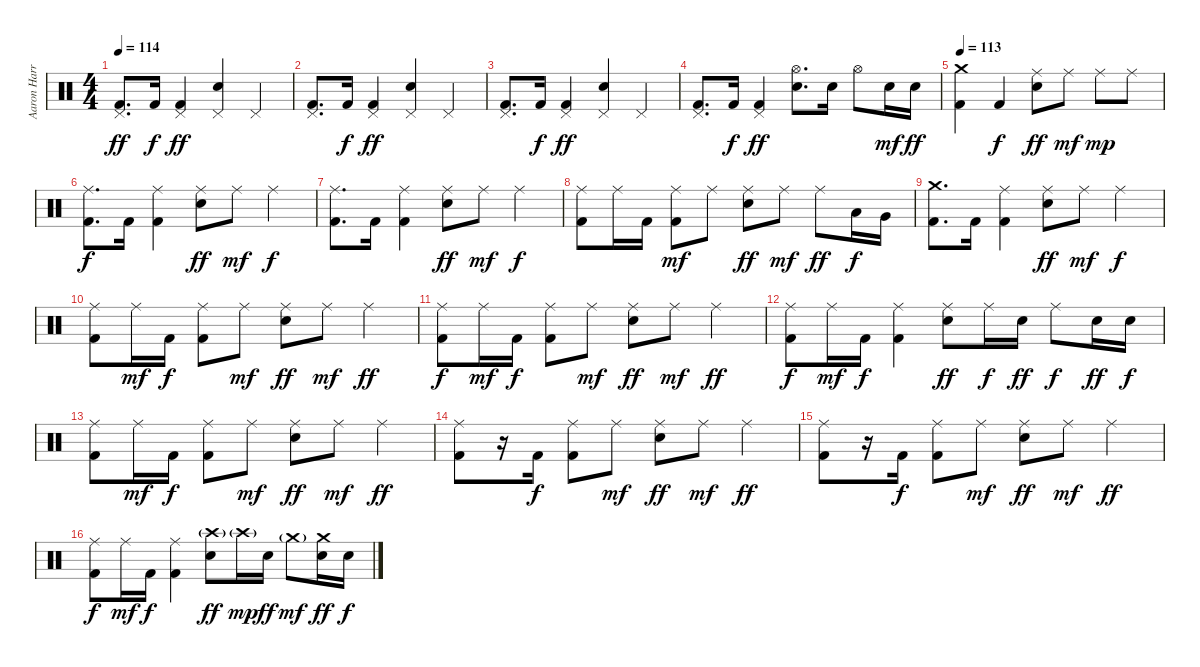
\track ("Aaron Harris" "Aaron Harr") {instrument percussion}
\staff {score}
\articulation defaults
\ts (4 4)
\tempo 114
\clef neutral
\ks c
("Pedal Hi-Hat (hit)" "Kick (hit) 2").8{d dy ff} "Kick (hit) 2".16{dy f} ("Pedal Hi-Hat (hit)" "Kick (hit) 2").4{dy ff} ("Pedal Hi-Hat (hit)" "Electric Snare (hit)").4 "Pedal Hi-Hat (hit)".4 |
("Pedal Hi-Hat (hit)" "Kick (hit) 2").8{d} "Kick (hit) 2".16{dy f} ("Pedal Hi-Hat (hit)" "Kick (hit) 2").4{dy ff} ("Pedal Hi-Hat (hit)" "Electric Snare (hit)").4 "Pedal Hi-Hat (hit)".4 |
("Pedal Hi-Hat (hit)" "Kick (hit) 2").8{d} "Kick (hit) 2".16{dy f} ("Pedal Hi-Hat (hit)" "Kick (hit) 2").4{dy ff} ("Pedal Hi-Hat (hit)" "Electric Snare (hit)").4 "Pedal Hi-Hat (hit)".4 |
("Pedal Hi-Hat (hit)" "Kick (hit) 2").8{d} "Kick (hit) 2".16{dy f} ("Pedal Hi-Hat (hit)" "Kick (hit) 2").4{dy ff} ("Hi-Hat (open)" "Electric Snare (hit)").8{d} "Electric Snare (hit)".16 "Hi-Hat (open)".8 "Electric Snare (hit)".16{dy mf} "Electric Snare (hit)".16{dy ff} |
\tempo 113
("Crash medium (hit)" "Kick (hit) 2").4 "Kick (hit) 2".4{dy f} ("Ride (middle)" "Electric Snare (hit)").8{dy ff} "Ride (middle)".8{dy mf} "Ride (middle)".8{dy mp} "Ride (middle)".8 |
("Ride (middle)" "Kick (hit) 2").8{d dy f} "Kick (hit) 2".16 ("Ride (middle)" "Kick (hit) 2").4 ("Ride (middle)" "Electric Snare (hit)").8{dy ff} "Ride (middle)".8{dy mf} "Ride (middle)".4{dy f} |
("Ride (middle)" "Kick (hit) 2").8{d} "Kick (hit) 2".16 ("Ride (middle)" "Kick (hit) 2").4 ("Ride (middle)" "Electric Snare (hit)").8{dy ff} "Ride (middle)".8{dy mf} "Ride (middle)".4{dy f} |
("Ride (middle)" "Kick (hit) 2").8 "Ride (middle)".16 "Kick (hit) 2".16 ("Ride (middle)" "Kick (hit) 2").8{dy mf} "Ride (middle)".8 ("Ride (middle)" "Electric Snare (hit)").8{dy ff} "Ride (middle)".8{dy mf} "Ride (middle)".8{dy ff} "Low Tom (hit)".16{dy f} "Very Low Tom (hit)".16 |
("Crash medium (hit)" "Kick (hit) 2").8{d} "Kick (hit) 2".16 ("Ride (middle)" "Kick (hit) 2").4 ("Ride (middle)" "Electric Snare (hit)").8{dy ff} "Ride (middle)".8{dy mf} "Ride (middle)".4{dy f} |
("Ride (middle)" "Kick (hit) 2").8 "Ride (middle)".16{dy mf} "Kick (hit) 2".16{dy f} ("Ride (middle)" "Kick (hit) 2").8 "Ride (middle)".8{dy mf} ("Ride (middle)" "Electric Snare (hit)").8{dy ff} "Ride (middle)".8{dy mf} "Ride (middle)".4{dy ff} |
("Ride (middle)" "Kick (hit) 2").8{dy f} "Ride (middle)".16{dy mf} "Kick (hit) 2".16{dy f} ("Ride (middle)" "Kick (hit) 2").8 "Ride (middle)".8{dy mf} ("Ride (middle)" "Electric Snare (hit)").8{dy ff} "Ride (middle)".8{dy mf} "Ride (middle)".4{dy ff} |
("Ride (middle)" "Kick (hit) 2").8{dy f} "Ride (middle)".16{dy mf} "Kick (hit) 2".16{dy f} ("Ride (middle)" "Kick (hit) 2").4 ("Ride (middle)" "Electric Snare (hit)").8{dy ff} "Ride (middle)".16{dy f} "Electric Snare (hit)".16{dy ff} "Ride (middle)".8{dy f} "Electric Snare (hit)".16{dy ff} "Electric Snare (hit)".16{dy f} |
("Ride (middle)" "Kick (hit) 2").8 "Ride (middle)".16{dy mf} "Kick (hit) 2".16{dy f} ("Ride (middle)" "Kick (hit) 2").8 "Ride (middle)".8{dy mf} ("Ride (middle)" "Electric Snare (hit)").8{dy ff} "Ride (middle)".8{dy mf} "Ride (middle)".4{dy ff} |
("Ride (middle)" "Kick (hit) 2").8 r.16 "Kick (hit) 2".16{dy f} ("Ride (middle)" "Kick (hit) 2").8 "Ride (middle)".8{dy mf} ("Ride (middle)" "Electric Snare (hit)").8{dy ff} "Ride (middle)".8{dy mf} "Ride (middle)".4{dy ff} |
("Ride (middle)" "Kick (hit) 2").8 r.16 "Kick (hit) 2".16{dy f} ("Ride (middle)" "Kick (hit) 2").8 "Ride (middle)".8{dy mf} ("Ride (middle)" "Electric Snare (hit)").8{dy ff} "Ride (middle)".8{dy mf} "Ride (middle)".4{dy ff} |
("Ride (middle)" "Kick (hit) 2").8{dy f} "Ride (middle)".16{dy mf} "Kick (hit) 2".16{dy f} ("Ride (middle)" "Kick (hit) 2").4 ("Crash high (hit)"{g} "Electric Snare (hit)").8{dy ff} "Crash high (hit)"{g}.16{dy mp} "Electric Snare (hit)".16{dy ff} "Crash medium (hit)"{g}.8{dy mf} ("Crash medium (hit)" "Electric Snare (hit)").16{dy ff} "Electric Snare (hit)".16{dy f}
